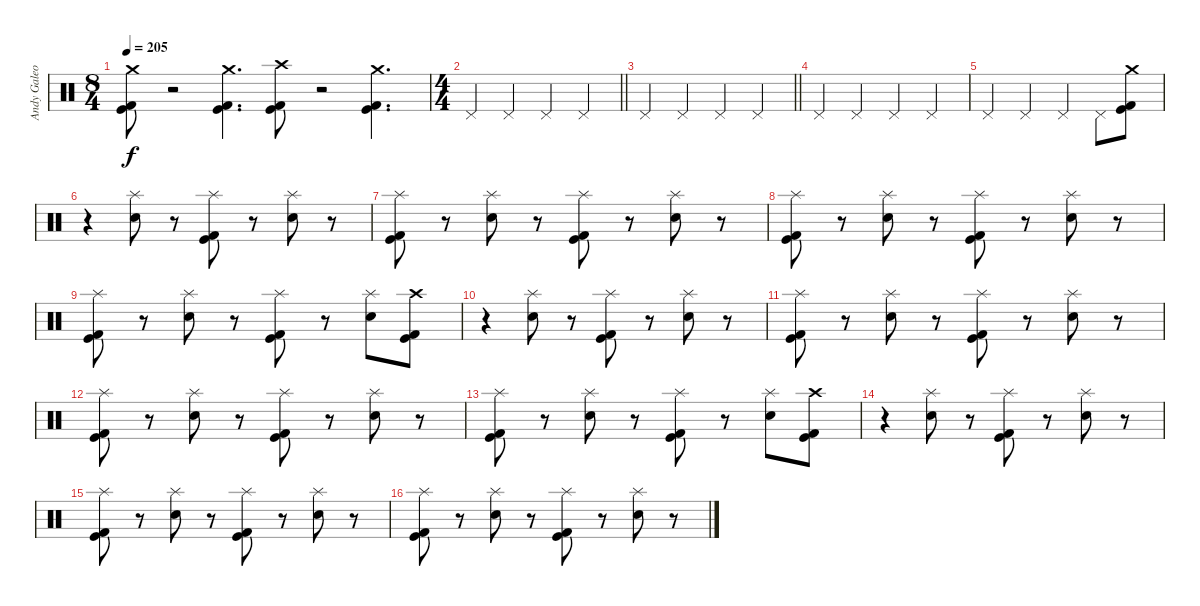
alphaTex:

\track ("Andy Galeon - Drums" "Andy Galeo") {instrument percussion}
\staff {score}
\articulation defaults
\ts (8 4)
\tempo 205
\clef neutral
\ks c
("Crash medium (hit)" "Kick (hit) 2" "Kick (hit)").8{dy f} r.2 ("Crash medium (hit)" "Kick (hit)" "Kick (hit) 2").4{d} ("Crash high (hit)" "Kick (hit) 2" "Kick (hit)").8 r.2 ("Crash medium (hit)" "Kick (hit) 2" "Kick (hit)").4{d} |
\ts (4 4)
\barLineRight lightlight "Pedal Hi-Hat (hit)".4 "Pedal Hi-Hat (hit)".4 "Pedal Hi-Hat (hit)".4 "Pedal Hi-Hat (hit)".4
|
\section ("" "")
\barLineRight lightlight "Pedal Hi-Hat (hit)".4 "Pedal Hi-Hat (hit)".4 "Pedal Hi-Hat (hit)".4 "Pedal Hi-Hat (hit)".4
|
\section ("" "")
"Pedal Hi-Hat (hit)".4 "Pedal Hi-Hat (hit)".4 "Pedal Hi-Hat (hit)".4 "Pedal Hi-Hat (hit)".4 |
"Pedal Hi-Hat (hit)".4 "Pedal Hi-Hat (hit)".4 "Pedal Hi-Hat (hit)".4 "Pedal Hi-Hat (hit)".8 ("Crash medium (hit)" "Kick (hit) 2" "Kick (hit)").8 |
r.4 ("Splash (hit)" "Electric Snare (hit)").8 r.8 ("Splash (hit)" "Kick (hit) 2" "Kick (hit)").8 r.8 ("Splash (hit)" "Electric Snare (hit)").8 r.8 |
("Splash (hit)" "Kick (hit) 2" "Kick (hit)").8 r.8 ("Splash (hit)" "Electric Snare (hit)").8 r.8 ("Splash (hit)" "Kick (hit) 2" "Kick (hit)").8 r.8 ("Splash (hit)" "Electric Snare (hit)").8 r.8 |
("Splash (hit)" "Kick (hit) 2" "Kick (hit)").8 r.8 ("Splash (hit)" "Electric Snare (hit)").8 r.8 ("Splash (hit)" "Kick (hit) 2" "Kick (hit)").8 r.8 ("Splash (hit)" "Electric Snare (hit)").8 r.8 |
("Splash (hit)" "Kick (hit) 2" "Kick (hit)").8 r.8 ("Splash (hit)" "Electric Snare (hit)").8 r.8 ("Splash (hit)" "Kick (hit) 2" "Kick (hit)").8 r.8 ("Splash (hit)" "Electric Snare (hit)").8 ("Crash high (hit)" "Kick (hit)" "Kick (hit) 2").8 |
r.4 ("Splash (hit)" "Electric Snare (hit)").8 r.8 ("Splash (hit)" "Kick (hit) 2" "Kick (hit)").8 r.8 ("Splash (hit)" "Electric Snare (hit)").8 r.8 |
("Splash (hit)" "Kick (hit) 2" "Kick (hit)").8 r.8 ("Splash (hit)" "Electric Snare (hit)").8 r.8 ("Splash (hit)" "Kick (hit) 2" "Kick (hit)").8 r.8 ("Splash (hit)" "Electric Snare (hit)").8 r.8 |
("Splash (hit)" "Kick (hit) 2" "Kick (hit)").8 r.8 ("Splash (hit)" "Electric Snare (hit)").8 r.8 ("Splash (hit)" "Kick (hit) 2" "Kick (hit)").8 r.8 ("Splash (hit)" "Electric Snare (hit)").8 r.8 |
("Splash (hit)" "Kick (hit) 2" "Kick (hit)").8 r.8 ("Splash (hit)" "Electric Snare (hit)").8 r.8 ("Splash (hit)" "Kick (hit) 2" "Kick (hit)").8 r.8 ("Splash (hit)" "Electric Snare (hit)").8 ("Crash high (hit)" "Kick (hit)" "Kick (hit) 2").8 |
r.4 ("Splash (hit)" "Electric Snare (hit)").8 r.8 ("Splash (hit)" "Kick (hit) 2" "Kick (hit)").8 r.8 ("Splash (hit)" "Electric Snare (hit)").8 r.8 |
("Splash (hit)" "Kick (hit) 2" "Kick (hit)").8 r.8 ("Splash (hit)" "Electric Snare (hit)").8 r.8 ("Splash (hit)" "Kick (hit) 2" "Kick (hit)").8 r.8 ("Splash (hit)" "Electric Snare (hit)").8 r.8 |
("Splash (hit)" "Kick (hit) 2" "Kick (hit)").8 r.8 ("Splash (hit)" "Electric Snare (hit)").8 r.8 ("Splash (hit)" "Kick (hit) 2" "Kick (hit)").8 r.8 ("Splash (hit)" "Electric Snare (hit)").8 r.8
